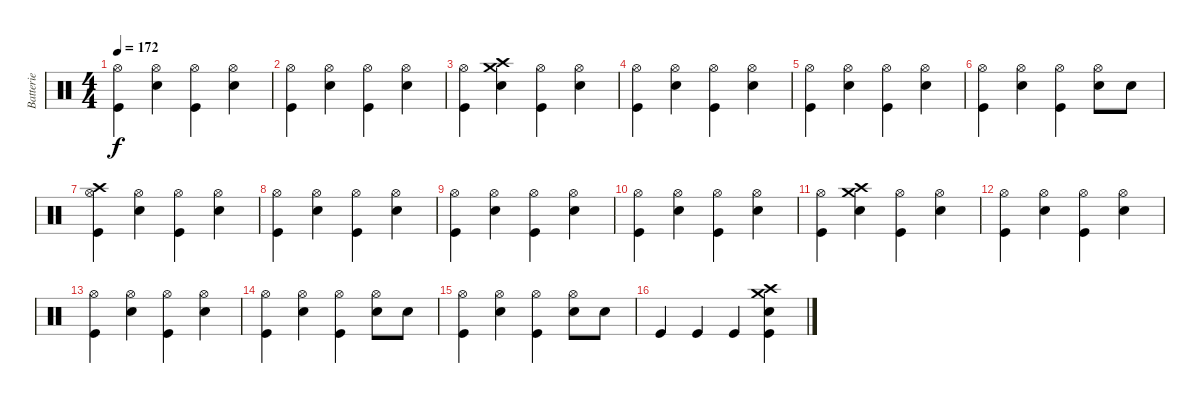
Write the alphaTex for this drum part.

\track ("Batterie" "Batterie") {instrument percussion}
\staff {score}
\articulation defaults
\ts (4 4)
\tempo 172
\clef neutral
\ks c
("Hi-Hat (open)" "Kick (hit)").4{dy f} ("Hi-Hat (open)" "Snare (hit) 2").4 ("Hi-Hat (open)" "Kick (hit)").4 ("Hi-Hat (open)" "Snare (hit) 2").4 |
("Hi-Hat (open)" "Kick (hit)").4 ("Hi-Hat (open)" "Snare (hit) 2").4 ("Hi-Hat (open)" "Kick (hit)").4 ("Hi-Hat (open)" "Snare (hit) 2").4 |
("Hi-Hat (open)" "Kick (hit)").4 ("Crash high (hit)" "Crash medium (hit)" "Snare (hit) 2").4 ("Hi-Hat (open)" "Kick (hit)").4 ("Hi-Hat (open)" "Snare (hit) 2").4 |
("Hi-Hat (open)" "Kick (hit)").4 ("Hi-Hat (open)" "Snare (hit) 2").4 ("Hi-Hat (open)" "Kick (hit)").4 ("Hi-Hat (open)" "Snare (hit) 2").4 |
("Hi-Hat (open)" "Kick (hit)").4 ("Hi-Hat (open)" "Snare (hit) 2").4 ("Hi-Hat (open)" "Kick (hit)").4 ("Hi-Hat (open)" "Snare (hit) 2").4 |
("Hi-Hat (open)" "Kick (hit)").4 ("Hi-Hat (open)" "Snare (hit) 2").4 ("Hi-Hat (open)" "Kick (hit)").4 ("Hi-Hat (open)" "Snare (hit) 2").8 "Snare (hit) 2".8 |
\section ("" "")
("Hi-Hat (open)" "Crash high (hit)" "Kick (hit)").4 ("Hi-Hat (open)" "Snare (hit) 2").4 ("Hi-Hat (open)" "Kick (hit)").4 ("Hi-Hat (open)" "Snare (hit) 2").4 |
("Hi-Hat (open)" "Kick (hit)").4 ("Hi-Hat (open)" "Snare (hit) 2").4 ("Hi-Hat (open)" "Kick (hit)").4 ("Hi-Hat (open)" "Snare (hit) 2").4 |
("Hi-Hat (open)" "Kick (hit)").4 ("Hi-Hat (open)" "Snare (hit) 2").4 ("Hi-Hat (open)" "Kick (hit)").4 ("Hi-Hat (open)" "Snare (hit) 2").4 |
("Hi-Hat (open)" "Kick (hit)").4 ("Hi-Hat (open)" "Snare (hit) 2").4 ("Hi-Hat (open)" "Kick (hit)").4 ("Hi-Hat (open)" "Snare (hit) 2").4 |
("Hi-Hat (open)" "Kick (hit)").4 ("Crash high (hit)" "Crash medium (hit)" "Snare (hit) 2").4 ("Hi-Hat (open)" "Kick (hit)").4 ("Hi-Hat (open)" "Snare (hit) 2").4 |
("Hi-Hat (open)" "Kick (hit)").4 ("Hi-Hat (open)" "Snare (hit) 2").4 ("Hi-Hat (open)" "Kick (hit)").4 ("Hi-Hat (open)" "Snare (hit) 2").4 |
("Hi-Hat (open)" "Kick (hit)").4 ("Hi-Hat (open)" "Snare (hit) 2").4 ("Hi-Hat (open)" "Kick (hit)").4 ("Hi-Hat (open)" "Snare (hit) 2").4 |
\section ("" "")
("Hi-Hat (open)" "Kick (hit)").4 ("Hi-Hat (open)" "Snare (hit) 2").4 ("Hi-Hat (open)" "Kick (hit)").4 ("Hi-Hat (open)" "Snare (hit) 2").8 "Snare (hit) 2".8 |
("Hi-Hat (open)" "Kick (hit)").4 ("Hi-Hat (open)" "Snare (hit) 2").4 ("Hi-Hat (open)" "Kick (hit)").4 ("Hi-Hat (open)" "Snare (hit) 2").8 "Snare (hit) 2".8 |
"Kick (hit)".4 "Kick (hit)".4 "Kick (hit)".4 ("Crash high (hit)" "Crash medium (hit)" "Snare (hit) 2" "Kick (hit)").4
